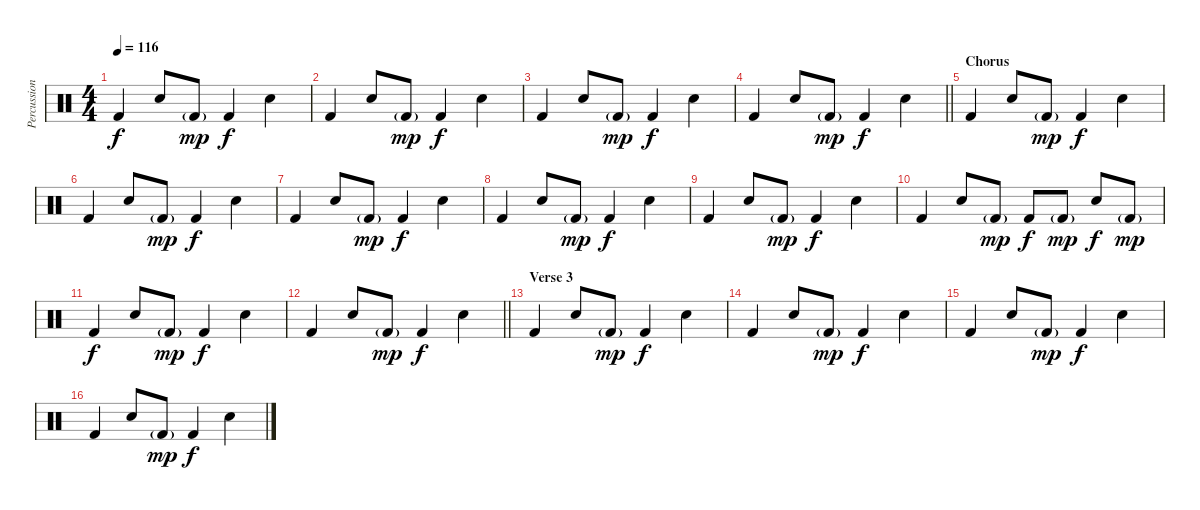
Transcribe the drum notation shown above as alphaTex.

\track ("Percussion" "Percussion") {instrument percussion}
\staff {score}
\articulation defaults
\ts (4 4)
\tempo 116
\clef neutral
\ks c "Kick (hit) 2".4{dy f} "Snare (hit) 2".8 "Kick (hit) 2"{g}.8{dy mp} "Kick (hit) 2".4{dy f} "Snare (hit) 2".4
|
"Kick (hit) 2".4 "Snare (hit) 2".8 "Kick (hit) 2"{g}.8{dy mp} "Kick (hit) 2".4{dy f} "Snare (hit) 2".4 |
"Kick (hit) 2".4 "Snare (hit) 2".8 "Kick (hit) 2"{g}.8{dy mp} "Kick (hit) 2".4{dy f} "Snare (hit) 2".4 |
\barLineRight lightlight "Kick (hit) 2".4 "Snare (hit) 2".8 "Kick (hit) 2"{g}.8{dy mp} "Kick (hit) 2".4{dy f} "Snare (hit) 2".4
|
\section ("" "Chorus")
"Kick (hit) 2".4 "Snare (hit) 2".8 "Kick (hit) 2"{g}.8{dy mp} "Kick (hit) 2".4{dy f} "Snare (hit) 2".4 |
"Kick (hit) 2".4 "Snare (hit) 2".8 "Kick (hit) 2"{g}.8{dy mp} "Kick (hit) 2".4{dy f} "Snare (hit) 2".4 |
"Kick (hit) 2".4 "Snare (hit) 2".8 "Kick (hit) 2"{g}.8{dy mp} "Kick (hit) 2".4{dy f} "Snare (hit) 2".4 |
"Kick (hit) 2".4 "Snare (hit) 2".8 "Kick (hit) 2"{g}.8{dy mp} "Kick (hit) 2".4{dy f} "Snare (hit) 2".4 |
"Kick (hit) 2".4 "Snare (hit) 2".8 "Kick (hit) 2"{g}.8{dy mp} "Kick (hit) 2".4{dy f} "Snare (hit) 2".4 |
"Kick (hit) 2".4 "Snare (hit) 2".8 "Kick (hit) 2"{g}.8{dy mp} "Kick (hit) 2".8{dy f} "Kick (hit) 2"{g}.8{dy mp} "Snare (hit) 2".8{dy f} "Kick (hit) 2"{g}.8{dy mp} |
"Kick (hit) 2".4{dy f} "Snare (hit) 2".8 "Kick (hit) 2"{g}.8{dy mp} "Kick (hit) 2".4{dy f} "Snare (hit) 2".4 |
\barLineRight lightlight "Kick (hit) 2".4 "Snare (hit) 2".8 "Kick (hit) 2"{g}.8{dy mp} "Kick (hit) 2".4{dy f} "Snare (hit) 2".4
|
\section ("" "Verse 3")
"Kick (hit) 2".4 "Snare (hit) 2".8 "Kick (hit) 2"{g}.8{dy mp} "Kick (hit) 2".4{dy f} "Snare (hit) 2".4 |
"Kick (hit) 2".4 "Snare (hit) 2".8 "Kick (hit) 2"{g}.8{dy mp} "Kick (hit) 2".4{dy f} "Snare (hit) 2".4 |
"Kick (hit) 2".4 "Snare (hit) 2".8 "Kick (hit) 2"{g}.8{dy mp} "Kick (hit) 2".4{dy f} "Snare (hit) 2".4 |
"Kick (hit) 2".4 "Snare (hit) 2".8 "Kick (hit) 2"{g}.8{dy mp} "Kick (hit) 2".4{dy f} "Snare (hit) 2".4
